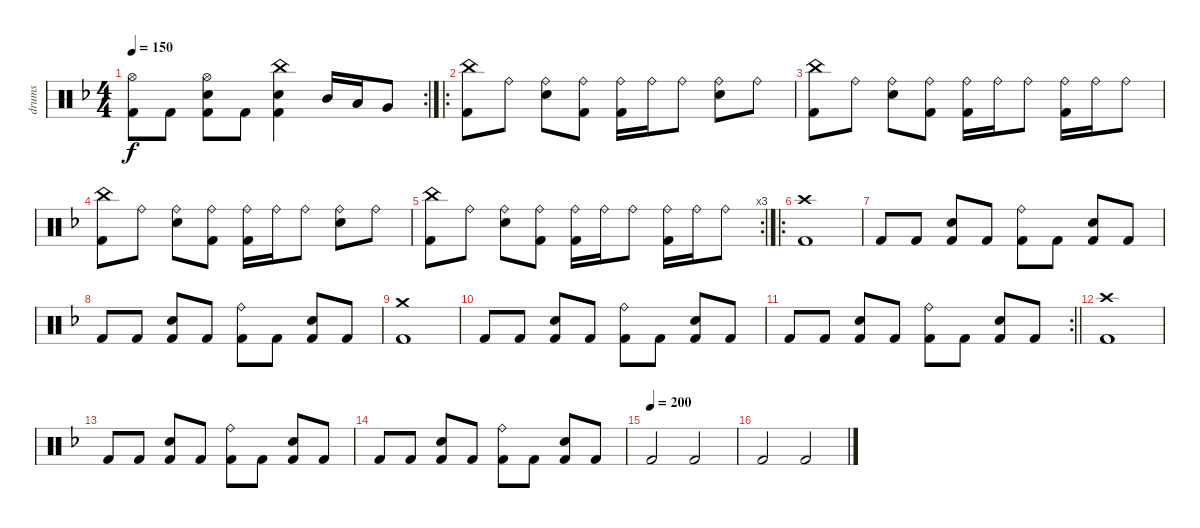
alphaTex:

\track ("drums" "drums") {instrument percussion}
\staff {score}
\articulation defaults
\rc 2
\ts (4 4)
\tempo 150
\clef neutral
\ks dminor
("Hi-Hat (open)" "Kick (hit) 2").8{dy f} "Kick (hit) 2".8 ("Hi-Hat (open)" "Electric Snare (hit)" "Kick (hit) 2").8 "Kick (hit) 2".8 ("China (hit)" "Electric Snare (hit)" "Kick (hit) 2").4 "Mid Tom (hit)".16 "Low Tom (hit)".16 "Very Low Tom (hit)".8 |
\ro
("China (hit)" "Kick (hit) 2").8 "Ride (bell)".8 ("Ride (bell)" "Electric Snare (hit)").8 ("Ride (bell)" "Kick (hit) 2").8 ("Ride (bell)" "Kick (hit) 2").16 "Ride (bell)".16 "Ride (bell)".8 ("Ride (bell)" "Electric Snare (hit)").8 "Ride (bell)".8 |
("China (hit)" "Kick (hit) 2").8 "Ride (bell)".8 ("Ride (bell)" "Electric Snare (hit)").8 ("Ride (bell)" "Kick (hit) 2").8 ("Ride (bell)" "Kick (hit) 2").16 "Ride (bell)".16 "Ride (bell)".8 ("Ride (bell)" "Kick (hit) 2").16 "Ride (bell)".16 "Ride (bell)".8 |
("China (hit)" "Kick (hit) 2").8 "Ride (bell)".8 ("Ride (bell)" "Electric Snare (hit)").8 ("Ride (bell)" "Kick (hit) 2").8 ("Ride (bell)" "Kick (hit) 2").16 "Ride (bell)".16 "Ride (bell)".8 ("Ride (bell)" "Electric Snare (hit)").8 "Ride (bell)".8 |
\rc 3
("China (hit)" "Kick (hit) 2").8 "Ride (bell)".8 ("Ride (bell)" "Electric Snare (hit)").8 ("Ride (bell)" "Kick (hit) 2").8 ("Ride (bell)" "Kick (hit) 2").16 "Ride (bell)".16 "Ride (bell)".8 ("Ride (bell)" "Kick (hit) 2").16 "Ride (bell)".16 "Ride (bell)".8 |
\ro
("Crash high (hit)" "Kick (hit) 2").1 |
"Kick (hit) 2".8 "Kick (hit) 2".8 ("Electric Snare (hit)" "Kick (hit) 2").8 "Kick (hit) 2".8 ("Ride (bell)" "Kick (hit) 2").8 "Kick (hit) 2".8 ("Electric Snare (hit)" "Kick (hit) 2").8 "Kick (hit) 2".8 |
"Kick (hit) 2".8 "Kick (hit) 2".8 ("Electric Snare (hit)" "Kick (hit) 2").8 "Kick (hit) 2".8 ("Ride (bell)" "Kick (hit) 2").8 "Kick (hit) 2".8 ("Electric Snare (hit)" "Kick (hit) 2").8 "Kick (hit) 2".8 |
("Crash medium (hit)" "Kick (hit) 2").1 |
"Kick (hit) 2".8 "Kick (hit) 2".8 ("Electric Snare (hit)" "Kick (hit) 2").8 "Kick (hit) 2".8 ("Ride (bell)" "Kick (hit) 2").8 "Kick (hit) 2".8 ("Electric Snare (hit)" "Kick (hit) 2").8 "Kick (hit) 2".8 |
\rc 2
\barLineRight lightlight "Kick (hit) 2".8 "Kick (hit) 2".8
("Electric Snare (hit)" "Kick (hit) 2").8 "Kick (hit) 2".8 ("Ride (bell)" "Kick (hit) 2").8 "Kick (hit) 2".8 ("Electric Snare (hit)" "Kick (hit) 2").8 "Kick (hit) 2".8 |
("Crash high (hit)" "Kick (hit) 2").1 |
"Kick (hit) 2".8 "Kick (hit) 2".8 ("Electric Snare (hit)" "Kick (hit) 2").8 "Kick (hit) 2".8 ("Ride (bell)" "Kick (hit) 2").8 "Kick (hit) 2".8 ("Electric Snare (hit)" "Kick (hit) 2").8 "Kick (hit) 2".8 |
"Kick (hit) 2".8 "Kick (hit) 2".8 ("Electric Snare (hit)" "Kick (hit) 2").8 "Kick (hit) 2".8 ("Ride (bell)" "Kick (hit) 2").8 "Kick (hit) 2".8 ("Electric Snare (hit)" "Kick (hit) 2").8 "Kick (hit) 2".8 |
\tempo (200)
"Kick (hit) 2".2 "Kick (hit) 2".2 |
"Kick (hit) 2".2 "Kick (hit) 2".2
